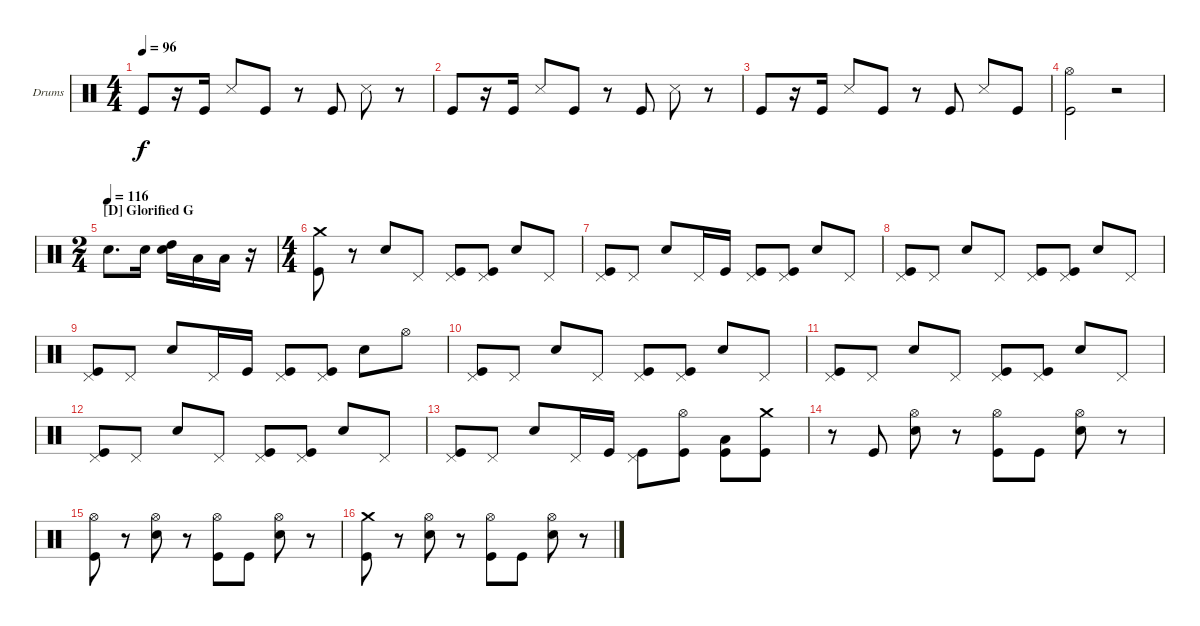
\defaultSystemsLayout 4
\bracketExtendMode nobrackets
\firstSystemTrackNameOrientation horizontal
\otherSystemsTrackNameOrientation horizontal
\track ("Dave Abbruzzese" "Drums") {solo instrument percussion}
\staff {score}
\articulation defaults
\ts (4 4)
\tempo 96
\clef neutral
\ks c "Kick (hit)".8{dy f}
r.16 "Kick (hit)".16 "Snare (side stick) 3".8 "Kick (hit)".8 r.8 "Kick (hit)".8 "Snare (side stick) 3".8 r.8 |
"Kick (hit)".8 r.16 "Kick (hit)".16 "Snare (side stick) 3".8 "Kick (hit)".8 r.8 "Kick (hit)".8 "Snare (side stick) 3".8 r.8 |
"Kick (hit)".8 r.16 "Kick (hit)".16 "Snare (side stick) 3".8 "Kick (hit)".8 r.8 "Kick (hit)".8 "Snare (side stick) 3".8 "Kick (hit)".8 |
("Hi-Hat (open)" "Kick (hit)").2 r.2 |
\ts (2 4)
\section ("D" "Glorified G")
\tempo (116)
"Snare (hit) 2".8{d} "Snare (hit) 2".16 ("Snare (hit) 2" "High Tom (hit)").16 "Low Tom (hit)".16 "Low Tom (hit)".16 r.16 |
\ts (4 4)
("Crash medium (hit)" "Kick (hit)").8 r.8 "Snare (hit) 2".8 "Pedal Hi-Hat (hit)".8 ("Pedal Hi-Hat (hit)" "Kick (hit)").8 ("Pedal Hi-Hat (hit)" "Kick (hit)").8 "Snare (hit) 2".8 "Pedal Hi-Hat (hit)".8 |
("Pedal Hi-Hat (hit)" "Kick (hit)").8 "Pedal Hi-Hat (hit)".8 "Snare (hit) 2".8 "Pedal Hi-Hat (hit)".16 "Kick (hit)".16 ("Pedal Hi-Hat (hit)" "Kick (hit)").8 ("Pedal Hi-Hat (hit)" "Kick (hit)").8 "Snare (hit) 2".8 "Pedal Hi-Hat (hit)".8 |
("Pedal Hi-Hat (hit)" "Kick (hit)").8 "Pedal Hi-Hat (hit)".8 "Snare (hit) 2".8 "Pedal Hi-Hat (hit)".8 ("Pedal Hi-Hat (hit)" "Kick (hit)").8 ("Pedal Hi-Hat (hit)" "Kick (hit)").8 "Snare (hit) 2".8 "Pedal Hi-Hat (hit)".8 |
("Pedal Hi-Hat (hit)" "Kick (hit)").8 "Pedal Hi-Hat (hit)".8 "Snare (hit) 2".8 "Pedal Hi-Hat (hit)".16 "Kick (hit)".16 ("Pedal Hi-Hat (hit)" "Kick (hit)").8 ("Pedal Hi-Hat (hit)" "Kick (hit)").8 "Snare (hit) 2".8 "Hi-Hat (open)".8 |
("Pedal Hi-Hat (hit)" "Kick (hit)").8 "Pedal Hi-Hat (hit)".8 "Snare (hit) 2".8 "Pedal Hi-Hat (hit)".8 ("Pedal Hi-Hat (hit)" "Kick (hit)").8 ("Pedal Hi-Hat (hit)" "Kick (hit)").8 "Snare (hit) 2".8 "Pedal Hi-Hat (hit)".8 |
("Pedal Hi-Hat (hit)" "Kick (hit)").8 "Pedal Hi-Hat (hit)".8 "Snare (hit) 2".8 "Pedal Hi-Hat (hit)".8 ("Pedal Hi-Hat (hit)" "Kick (hit)").8 ("Pedal Hi-Hat (hit)" "Kick (hit)").8 "Snare (hit) 2".8 "Pedal Hi-Hat (hit)".8 |
("Pedal Hi-Hat (hit)" "Kick (hit)").8 "Pedal Hi-Hat (hit)".8 "Snare (hit) 2".8 "Pedal Hi-Hat (hit)".8 ("Pedal Hi-Hat (hit)" "Kick (hit)").8 ("Pedal Hi-Hat (hit)" "Kick (hit)").8 "Snare (hit) 2".8 "Pedal Hi-Hat (hit)".8 |
("Pedal Hi-Hat (hit)" "Kick (hit)").8 "Pedal Hi-Hat (hit)".8 "Snare (hit) 2".8 "Pedal Hi-Hat (hit)".16 "Kick (hit)".16 ("Pedal Hi-Hat (hit)" "Kick (hit)").8 ("Hi-Hat (open)" "Kick (hit)").8 ("Low Tom (hit)" "Kick (hit)").8 ("Crash medium (hit)" "Kick (hit)").8 |
r.8 "Kick (hit)".8 ("Hi-Hat (open)" "Snare (hit) 2").8 r.8 ("Hi-Hat (open)" "Kick (hit)").8 "Kick (hit)".8 ("Hi-Hat (open)" "Snare (hit) 2").8 r.8 |
("Hi-Hat (open)" "Kick (hit)").8 r.8 ("Hi-Hat (open)" "Snare (hit) 2").8 r.8 ("Hi-Hat (open)" "Kick (hit)").8 "Kick (hit)".8 ("Hi-Hat (open)" "Snare (hit) 2").8 r.8 |
("Crash medium (hit)" "Kick (hit)").8 r.8 ("Hi-Hat (open)" "Snare (hit) 2").8 r.8 ("Hi-Hat (open)" "Kick (hit)").8 "Kick (hit)".8 ("Hi-Hat (open)" "Snare (hit) 2").8 r.8
